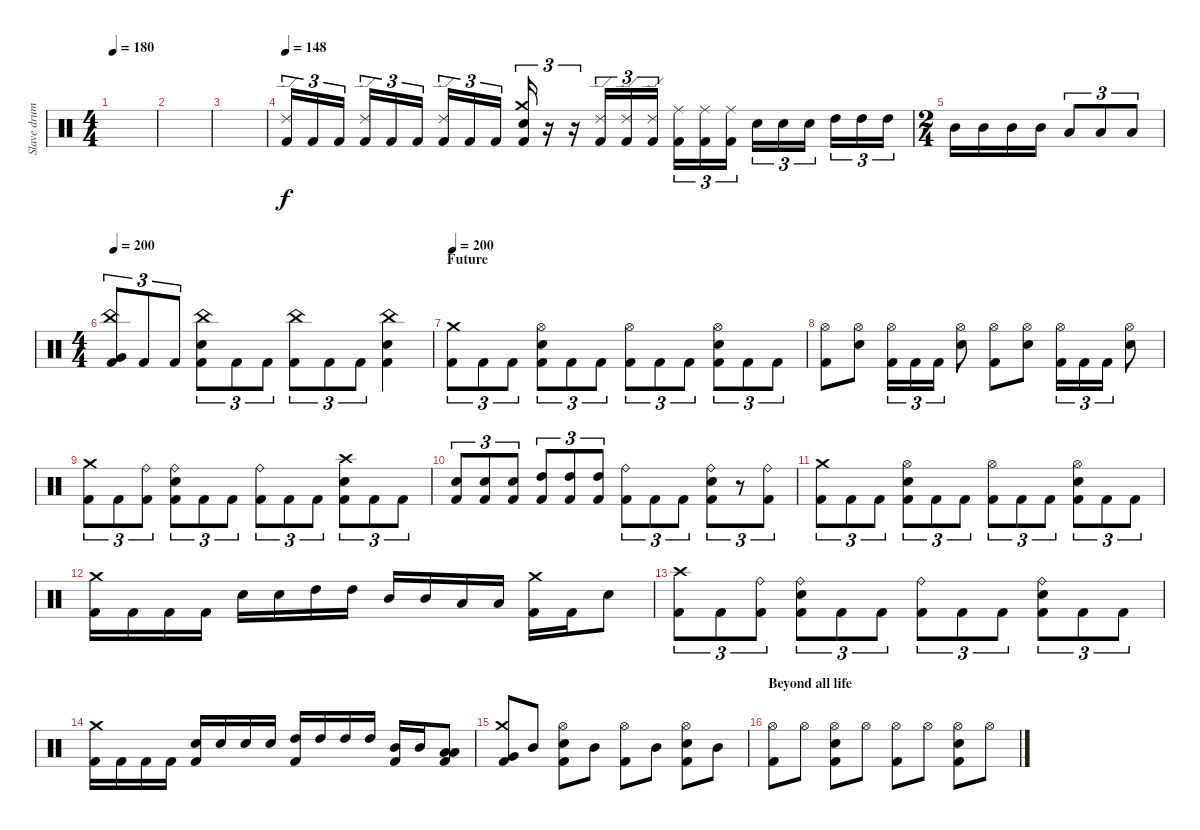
\track ("Slave drum" "Slave drum") {instrument percussion}
\staff {score}
\articulation defaults
\ts (4 4)
\tempo 180
\clef neutral
\ks c
|
|
|
\tempo 148
("Ride (edge) 2" "Kick (hit) 2").16{tu (3 2) dy f} "Kick (hit) 2".16{tu (3 2)} "Kick (hit) 2".16{tu (3 2)} ("Ride (edge) 2" "Kick (hit) 2").16{tu (3 2)} "Kick (hit) 2".16{tu (3 2)} "Kick (hit) 2".16{tu (3 2)} ("Ride (edge) 2" "Kick (hit) 2").16{tu (3 2)} "Kick (hit) 2".16{tu (3 2)} "Kick (hit) 2".16{tu (3 2)} ("Crash medium (hit)" "Electric Snare (hit)" "Kick (hit) 2").16{tu (3 2)} r.16{tu (3 2)} r.16{tu (3 2)} ("Ride (edge) 2" "Kick (hit) 2").16{tu (3 2)} ("Ride (edge) 2" "Kick (hit) 2").16{tu (3 2)} ("Ride (edge) 2" "Kick (hit) 2").16{tu (3 2)} ("Ride (middle)" "Kick (hit) 2").16{tu (3 2)} ("Ride (middle)" "Kick (hit) 2").16{tu (3 2)} ("Ride (middle)" "Kick (hit) 2").16{tu (3 2)} "Electric Snare (hit)".16{tu (3 2)} "Electric Snare (hit)".16{tu (3 2)} "Electric Snare (hit)".16{tu (3 2)} "High Tom (hit)".16{tu (3 2)} "High Tom (hit)".16{tu (3 2)} "High Tom (hit)".16{tu (3 2)} |
\ts (2 4)
"Mid Tom (hit)".16 "Mid Tom (hit)".16 "Mid Tom (hit)".16 "Mid Tom (hit)".16 "Low Tom (hit)".8{tu (3 2)} "Low Tom (hit)".8{tu (3 2)} "Low Tom (hit)".8{tu (3 2)} |
\ts (4 4)
\tempo 200
("China (hit)" "Very Low Tom (hit)" "Kick (hit) 2").8{tu (3 2)} "Kick (hit) 2".8{tu (3 2)} "Kick (hit) 2".8{tu (3 2)} ("China (hit)" "Electric Snare (hit)" "Kick (hit) 2").8{tu (3 2)} "Kick (hit) 2".8{tu (3 2)} "Kick (hit) 2".8{tu (3 2)} ("China (hit)" "Kick (hit) 2").8{tu (3 2)} "Kick (hit) 2".8{tu (3 2)} "Kick (hit) 2".8{tu (3 2)} ("China (hit)" "Electric Snare (hit)" "Kick (hit) 2").4 |
\section ("" "Future")
\tempo 200
("Crash medium (hit)" "Kick (hit) 2").8{tu (3 2)} "Kick (hit) 2".8{tu (3 2)} "Kick (hit) 2".8{tu (3 2)} ("Hi-Hat (open)" "Electric Snare (hit)" "Kick (hit) 2").8{tu (3 2)} "Kick (hit) 2".8{tu (3 2)} "Kick (hit) 2".8{tu (3 2)} ("Hi-Hat (open)" "Kick (hit) 2").8{tu (3 2)} "Kick (hit) 2".8{tu (3 2)} "Kick (hit) 2".8{tu (3 2)} ("Hi-Hat (open)" "Electric Snare (hit)" "Kick (hit) 2").8{tu (3 2)} "Kick (hit) 2".8{tu (3 2)} "Kick (hit) 2".8{tu (3 2)} |
("Hi-Hat (open)" "Kick (hit) 2").8 ("Hi-Hat (open)" "Electric Snare (hit)").8 ("Hi-Hat (open)" "Kick (hit) 2").16{tu (3 2)} "Kick (hit) 2".16{tu (3 2)} "Kick (hit) 2".16{tu (3 2)} ("Hi-Hat (open)" "Electric Snare (hit)").8 ("Hi-Hat (open)" "Kick (hit) 2").8 ("Hi-Hat (open)" "Electric Snare (hit)").8 ("Hi-Hat (open)" "Kick (hit) 2").16{tu (3 2)} "Kick (hit) 2".16{tu (3 2)} "Kick (hit) 2".16{tu (3 2)} ("Hi-Hat (open)" "Electric Snare (hit)").8 |
("Crash medium (hit)" "Kick (hit) 2").8{tu (3 2)} "Kick (hit) 2".8{tu (3 2)} ("Ride (bell)" "Kick (hit) 2").8{tu (3 2)} ("Ride (bell)" "Electric Snare (hit)" "Kick (hit) 2").8{tu (3 2)} "Kick (hit) 2".8{tu (3 2)} "Kick (hit) 2".8{tu (3 2)} ("Ride (bell)" "Kick (hit) 2").8{tu (3 2)} "Kick (hit) 2".8{tu (3 2)} "Kick (hit) 2".8{tu (3 2)} ("Crash high (hit)" "Electric Snare (hit)" "Kick (hit) 2").8{tu (3 2)} "Kick (hit) 2".8{tu (3 2)} "Kick (hit) 2".8{tu (3 2)} |
("Electric Snare (hit)" "Kick (hit) 2").8{tu (3 2)} ("Electric Snare (hit)" "Kick (hit) 2").8{tu (3 2)} ("Electric Snare (hit)" "Kick (hit) 2").8{tu (3 2)} ("High Tom (hit)" "Kick (hit) 2").8{tu (3 2)} ("High Tom (hit)" "Kick (hit) 2").8{tu (3 2)} ("High Tom (hit)" "Kick (hit) 2").8{tu (3 2)} ("Ride (bell)" "Kick (hit) 2").8{tu (3 2)} "Kick (hit) 2".8{tu (3 2)} "Kick (hit) 2".8{tu (3 2)} ("Ride (bell)" "Electric Snare (hit)" "Kick (hit) 2").8{tu (3 2)} r.8{tu (3 2)} ("Ride (bell)" "Kick (hit) 2").8{tu (3 2)} |
("Crash medium (hit)" "Kick (hit) 2").8{tu (3 2)} "Kick (hit) 2".8{tu (3 2)} "Kick (hit) 2".8{tu (3 2)} ("Hi-Hat (open)" "Electric Snare (hit)" "Kick (hit) 2").8{tu (3 2)} "Kick (hit) 2".8{tu (3 2)} "Kick (hit) 2".8{tu (3 2)} ("Hi-Hat (open)" "Kick (hit) 2").8{tu (3 2)} "Kick (hit) 2".8{tu (3 2)} "Kick (hit) 2".8{tu (3 2)} ("Hi-Hat (open)" "Electric Snare (hit)" "Kick (hit) 2").8{tu (3 2)} "Kick (hit) 2".8{tu (3 2)} "Kick (hit) 2".8{tu (3 2)} |
("Crash medium (hit)" "Kick (hit) 2").16 "Kick (hit) 2".16 "Kick (hit) 2".16 "Kick (hit) 2".16 "Electric Snare (hit)".16 "Electric Snare (hit)".16 "High Tom (hit)".16 "High Tom (hit)".16 "Mid Tom (hit)".16 "Mid Tom (hit)".16 "Low Tom (hit)".16 "Low Tom (hit)".16 ("Crash medium (hit)" "Kick (hit) 2").16 "Kick (hit) 2".16 "Electric Snare (hit)".8 |
("Crash high (hit)" "Kick (hit) 2").8{tu (3 2)} "Kick (hit) 2".8{tu (3 2)} ("Ride (bell)" "Kick (hit) 2").8{tu (3 2)} ("Ride (bell)" "Electric Snare (hit)" "Kick (hit) 2").8{tu (3 2)} "Kick (hit) 2".8{tu (3 2)} "Kick (hit) 2".8{tu (3 2)} ("Ride (bell)" "Kick (hit) 2").8{tu (3 2)} "Kick (hit) 2".8{tu (3 2)} "Kick (hit) 2".8{tu (3 2)} ("Ride (bell)" "Electric Snare (hit)" "Kick (hit) 2").8{tu (3 2)} "Kick (hit) 2".8{tu (3 2)} "Kick (hit) 2".8{tu (3 2)} |
("Crash medium (hit)" "Kick (hit) 2").16 "Kick (hit) 2".16 "Kick (hit) 2".16 "Kick (hit) 2".16 ("Electric Snare (hit)" "Kick (hit) 2").16 "Electric Snare (hit)".16 "Electric Snare (hit)".16 "Electric Snare (hit)".16 ("High Tom (hit)" "Kick (hit) 2").16 "High Tom (hit)".16 "High Tom (hit)".16 "High Tom (hit)".16 ("Mid Tom (hit)" "Kick (hit) 2").16 "Mid Tom (hit)".16 ("Low Tom (hit)" "Low Tom (hit)" "Kick (hit) 2").8 |
("Crash medium (hit)" "Very Low Tom (hit)" "Kick (hit) 2").8 "Mid Tom (hit)".8 ("Hi-Hat (open)" "Electric Snare (hit)" "Kick (hit) 2").8 "Mid Tom (hit)".8 ("Hi-Hat (open)" "Kick (hit) 2").8 "Mid Tom (hit)".8 ("Hi-Hat (open)" "Electric Snare (hit)" "Kick (hit) 2").8 "Mid Tom (hit)".8 |
\section ("" "Beyond all life")
("Hi-Hat (open)" "Kick (hit) 2").8 "Hi-Hat (open)".8 ("Hi-Hat (open)" "Electric Snare (hit)" "Kick (hit) 2").8 "Hi-Hat (open)".8 ("Hi-Hat (open)" "Kick (hit) 2").8 "Hi-Hat (open)".8 ("Hi-Hat (open)" "Electric Snare (hit)" "Kick (hit) 2").8 "Hi-Hat (open)".8
